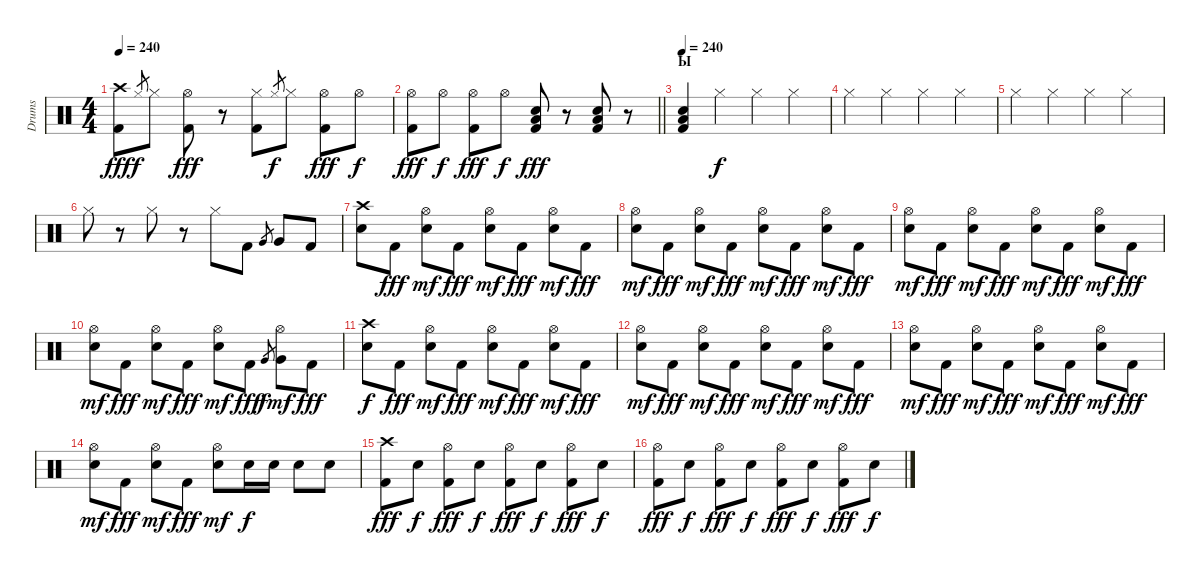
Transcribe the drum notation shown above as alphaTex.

\track ("Drums" "Drums") {instrument percussion}
\staff {score}
\articulation defaults
\ts (4 4)
\tempo 240
\clef neutral
\ks c
("Crash high (hit)" "Kick (hit) 2").8{dy fff} "Hi-Hat (closed)".8{gr dy f} "Hi-Hat (closed)".8 ("Hi-Hat (open)" "Kick (hit) 2").8{dy fff} r.8 ("Hi-Hat (closed)" "Kick (hit) 2").8 "Hi-Hat (closed)".8{gr dy f} "Hi-Hat (closed)".8 ("Hi-Hat (open)" "Kick (hit) 2").8{dy fff} "Hi-Hat (open)".8{dy f} |
\barLineRight lightlight
("Hi-Hat (open)" "Kick (hit) 2").8{dy fff} "Hi-Hat (open)".8{dy f} ("Hi-Hat (open)" "Kick (hit) 2").8{dy fff} "Hi-Hat (open)".8{dy f} ("Low Floor Tom (hit)" "Electric Snare (hit)" "Kick (hit) 2").8{dy fff} r.8 ("Low Floor Tom (hit)" "Electric Snare (hit)" "Kick (hit) 2").8 r.8 |
\section ("" "Ы")
\tempo 240
("Low Floor Tom (hit)" "Electric Snare (hit)" "Kick (hit) 2").4 "Hi-Hat (closed)".4{dy f} "Hi-Hat (closed)".4 "Hi-Hat (closed)".4 |
"Hi-Hat (closed)".4 "Hi-Hat (closed)".4 "Hi-Hat (closed)".4 "Hi-Hat (closed)".4 |
"Hi-Hat (closed)".4 "Hi-Hat (closed)".4 "Hi-Hat (closed)".4 "Hi-Hat (closed)".4 |
"Hi-Hat (closed)".8 r.8 "Hi-Hat (closed)".8 r.8 "Hi-Hat (closed)".8 "Kick (hit) 2".8 "Very Low Tom (hit)".8{gr} "Very Low Tom (hit)".8 "Kick (hit) 2".8 |
("Crash high (hit)" "Electric Snare (hit)").8 "Kick (hit) 2".8{dy fff} ("Hi-Hat (open)" "Electric Snare (hit)").8{dy mf} "Kick (hit) 2".8{dy fff} ("Hi-Hat (open)" "Electric Snare (hit)").8{dy mf} "Kick (hit) 2".8{dy fff} ("Hi-Hat (open)" "Electric Snare (hit)").8{dy mf} "Kick (hit) 2".8{dy fff} |
("Hi-Hat (open)" "Electric Snare (hit)").8{dy mf} "Kick (hit) 2".8{dy fff} ("Hi-Hat (open)" "Electric Snare (hit)").8{dy mf} "Kick (hit) 2".8{dy fff} ("Hi-Hat (open)" "Electric Snare (hit)").8{dy mf} "Kick (hit) 2".8{dy fff} ("Hi-Hat (open)" "Electric Snare (hit)").8{dy mf} "Kick (hit) 2".8{dy fff} |
("Hi-Hat (open)" "Electric Snare (hit)").8{dy mf} "Kick (hit) 2".8{dy fff} ("Hi-Hat (open)" "Electric Snare (hit)").8{dy mf} "Kick (hit) 2".8{dy fff} ("Hi-Hat (open)" "Electric Snare (hit)").8{dy mf} "Kick (hit) 2".8{dy fff} ("Hi-Hat (open)" "Electric Snare (hit)").8{dy mf} "Kick (hit) 2".8{dy fff} |
("Hi-Hat (open)" "Electric Snare (hit)").8{dy mf} "Kick (hit) 2".8{dy fff} ("Hi-Hat (open)" "Electric Snare (hit)").8{dy mf} "Kick (hit) 2".8{dy fff} ("Hi-Hat (open)" "Electric Snare (hit)").8{dy mf} "Kick (hit) 2".8{dy fff} "Very Low Tom (hit)".8{gr dy f} ("Hi-Hat (open)" "Very Low Tom (hit)").8{dy mf} "Kick (hit) 2".8{dy fff} |
("Crash high (hit)" "Electric Snare (hit)").8{dy f} "Kick (hit) 2".8{dy fff} ("Hi-Hat (open)" "Electric Snare (hit)").8{dy mf} "Kick (hit) 2".8{dy fff} ("Hi-Hat (open)" "Electric Snare (hit)").8{dy mf} "Kick (hit) 2".8{dy fff} ("Hi-Hat (open)" "Electric Snare (hit)").8{dy mf} "Kick (hit) 2".8{dy fff} |
("Hi-Hat (open)" "Electric Snare (hit)").8{dy mf} "Kick (hit) 2".8{dy fff} ("Hi-Hat (open)" "Electric Snare (hit)").8{dy mf} "Kick (hit) 2".8{dy fff} ("Hi-Hat (open)" "Electric Snare (hit)").8{dy mf} "Kick (hit) 2".8{dy fff} ("Hi-Hat (open)" "Electric Snare (hit)").8{dy mf} "Kick (hit) 2".8{dy fff} |
("Hi-Hat (open)" "Electric Snare (hit)").8{dy mf} "Kick (hit) 2".8{dy fff} ("Hi-Hat (open)" "Electric Snare (hit)").8{dy mf} "Kick (hit) 2".8{dy fff} ("Hi-Hat (open)" "Electric Snare (hit)").8{dy mf} "Kick (hit) 2".8{dy fff} ("Hi-Hat (open)" "Electric Snare (hit)").8{dy mf} "Kick (hit) 2".8{dy fff} |
("Hi-Hat (open)" "Electric Snare (hit)").8{dy mf} "Kick (hit) 2".8{dy fff} ("Hi-Hat (open)" "Electric Snare (hit)").8{dy mf} "Kick (hit) 2".8{dy fff} ("Hi-Hat (open)" "Electric Snare (hit)").8{dy mf} "Electric Snare (hit)".16{dy f} "Electric Snare (hit)".16 "Electric Snare (hit)".8 "Electric Snare (hit)".8 |
("Crash high (hit)" "Kick (hit) 2").8{dy fff} "Electric Snare (hit)".8{dy f} ("Hi-Hat (open)" "Kick (hit) 2").8{dy fff} "Electric Snare (hit)".8{dy f} ("Hi-Hat (open)" "Kick (hit) 2").8{dy fff} "Electric Snare (hit)".8{dy f} ("Hi-Hat (open)" "Kick (hit) 2").8{dy fff} "Electric Snare (hit)".8{dy f} |
("Hi-Hat (open)" "Kick (hit) 2").8{dy fff} "Electric Snare (hit)".8{dy f} ("Hi-Hat (open)" "Kick (hit) 2").8{dy fff} "Electric Snare (hit)".8{dy f} ("Hi-Hat (open)" "Kick (hit) 2").8{dy fff} "Electric Snare (hit)".8{dy f} ("Hi-Hat (open)" "Kick (hit) 2").8{dy fff} "Electric Snare (hit)".8{dy f}
